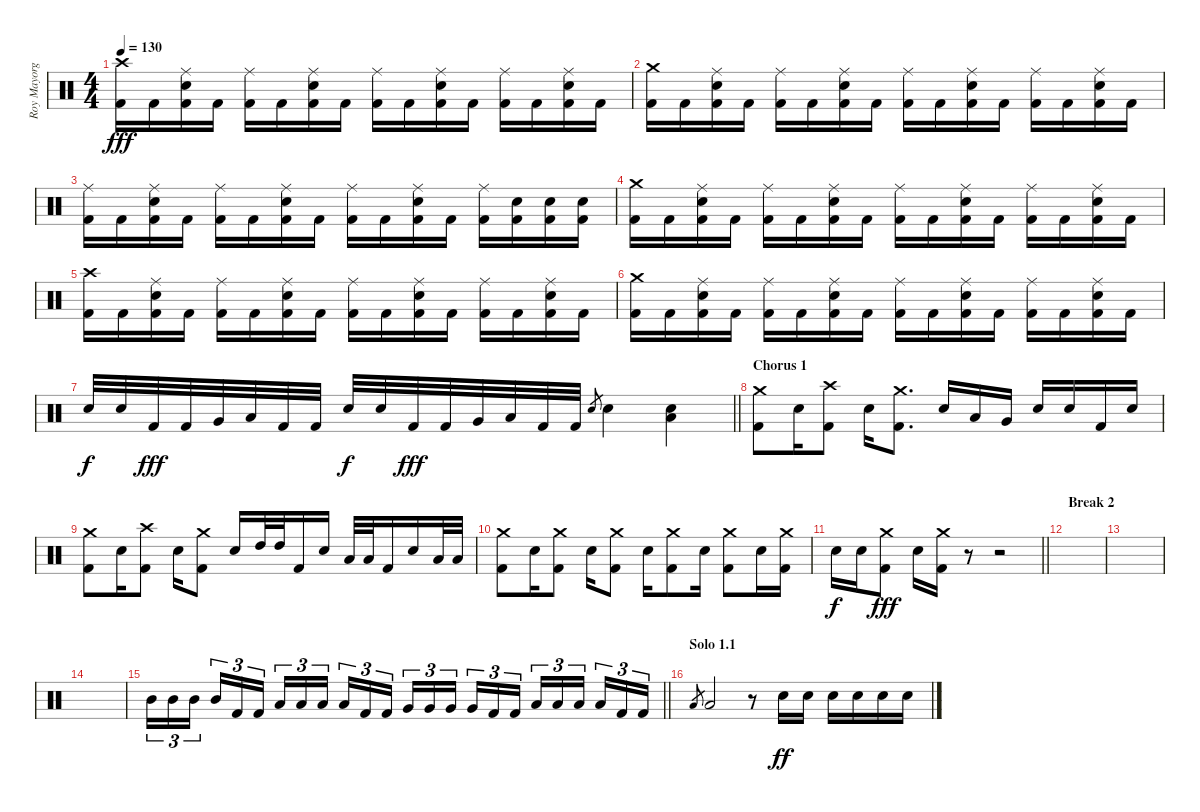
\track ("Roy Mayorga" "Roy Mayorg") {instrument percussion}
\staff {score}
\articulation defaults
\ts (4 4)
\tempo 130
\clef neutral
\ks c
("Crash high (hit)" "Kick (hit) 2").16{dy fff} "Kick (hit) 2".16 ("Ride (middle)" "Electric Snare (hit)" "Kick (hit) 2").16 "Kick (hit) 2".16 ("Ride (middle)" "Kick (hit) 2").16 "Kick (hit) 2".16 ("Ride (middle)" "Electric Snare (hit)" "Kick (hit) 2").16 "Kick (hit) 2".16 ("Ride (middle)" "Kick (hit) 2").16 "Kick (hit) 2".16 ("Ride (middle)" "Electric Snare (hit)" "Kick (hit) 2").16 "Kick (hit) 2".16 ("Ride (middle)" "Kick (hit) 2").16 "Kick (hit) 2".16 ("Ride (middle)" "Electric Snare (hit)" "Kick (hit) 2").16 "Kick (hit) 2".16 |
("Crash medium (hit)" "Kick (hit) 2").16 "Kick (hit) 2".16 ("Ride (middle)" "Electric Snare (hit)" "Kick (hit) 2").16 "Kick (hit) 2".16 ("Ride (middle)" "Kick (hit) 2").16 "Kick (hit) 2".16 ("Ride (middle)" "Electric Snare (hit)" "Kick (hit) 2").16 "Kick (hit) 2".16 ("Ride (middle)" "Kick (hit) 2").16 "Kick (hit) 2".16 ("Ride (middle)" "Electric Snare (hit)" "Kick (hit) 2").16 "Kick (hit) 2".16 ("Ride (middle)" "Kick (hit) 2").16 "Kick (hit) 2".16 ("Ride (middle)" "Electric Snare (hit)" "Kick (hit) 2").16 "Kick (hit) 2".16 |
("Ride (middle)" "Kick (hit) 2").16 "Kick (hit) 2".16 ("Ride (middle)" "Electric Snare (hit)" "Kick (hit) 2").16 "Kick (hit) 2".16 ("Ride (middle)" "Kick (hit) 2").16 "Kick (hit) 2".16 ("Ride (middle)" "Electric Snare (hit)" "Kick (hit) 2").16 "Kick (hit) 2".16 ("Ride (middle)" "Kick (hit) 2").16 "Kick (hit) 2".16 ("Ride (middle)" "Electric Snare (hit)" "Kick (hit) 2").16 "Kick (hit) 2".16 ("Ride (middle)" "Kick (hit) 2").16 ("Electric Snare (hit)" "Kick (hit) 2").16 ("Electric Snare (hit)" "Kick (hit) 2").16 ("Electric Snare (hit)" "Kick (hit) 2").16 |
("Crash medium (hit)" "Kick (hit) 2").16 "Kick (hit) 2".16 ("Ride (middle)" "Electric Snare (hit)" "Kick (hit) 2").16 "Kick (hit) 2".16 ("Ride (middle)" "Kick (hit) 2").16 "Kick (hit) 2".16 ("Ride (middle)" "Electric Snare (hit)" "Kick (hit) 2").16 "Kick (hit) 2".16 ("Ride (middle)" "Kick (hit) 2").16 "Kick (hit) 2".16 ("Ride (middle)" "Electric Snare (hit)" "Kick (hit) 2").16 "Kick (hit) 2".16 ("Ride (middle)" "Kick (hit) 2").16 "Kick (hit) 2".16 ("Ride (middle)" "Electric Snare (hit)" "Kick (hit) 2").16 "Kick (hit) 2".16 |
("Crash high (hit)" "Kick (hit) 2").16 "Kick (hit) 2".16 ("Ride (middle)" "Electric Snare (hit)" "Kick (hit) 2").16 "Kick (hit) 2".16 ("Ride (middle)" "Kick (hit) 2").16 "Kick (hit) 2".16 ("Ride (middle)" "Electric Snare (hit)" "Kick (hit) 2").16 "Kick (hit) 2".16 ("Ride (middle)" "Kick (hit) 2").16 "Kick (hit) 2".16 ("Ride (middle)" "Electric Snare (hit)" "Kick (hit) 2").16 "Kick (hit) 2".16 ("Ride (middle)" "Kick (hit) 2").16 "Kick (hit) 2".16 ("Ride (middle)" "Electric Snare (hit)" "Kick (hit) 2").16 "Kick (hit) 2".16 |
("Crash medium (hit)" "Kick (hit) 2").16 "Kick (hit) 2".16 ("Ride (middle)" "Electric Snare (hit)" "Kick (hit) 2").16 "Kick (hit) 2".16 ("Ride (middle)" "Kick (hit) 2").16 "Kick (hit) 2".16 ("Ride (middle)" "Electric Snare (hit)" "Kick (hit) 2").16 "Kick (hit) 2".16 ("Ride (middle)" "Kick (hit) 2").16 "Kick (hit) 2".16 ("Ride (middle)" "Electric Snare (hit)" "Kick (hit) 2").16 "Kick (hit) 2".16 ("Ride (middle)" "Kick (hit) 2").16 "Kick (hit) 2".16 ("Ride (middle)" "Electric Snare (hit)" "Kick (hit) 2").16 "Kick (hit) 2".16 |
\barLineRight lightlight "Electric Snare (hit)".32{dy f} "Electric Snare (hit)".32 "Kick (hit) 2".32{dy fff} "Kick (hit) 2".32 "Very Low Tom (hit)".32 "Low Floor Tom (hit)".32 "Kick (hit) 2".32 "Kick (hit) 2".32 "Electric Snare (hit)".32{dy f} "Electric Snare (hit)".32 "Kick (hit) 2".32{dy fff} "Kick (hit) 2".32 "Very Low Tom (hit)".32 "Low Floor Tom (hit)".32 "Kick (hit) 2".32 "Kick (hit) 2".32 "Electric Snare (hit)".8{gr} "Electric Snare (hit)".4
("Electric Snare (hit)" "Low Floor Tom (hit)").4 |
\section ("" "Chorus 1")
("Crash medium (hit)" "Kick (hit) 2").8 "Electric Snare (hit)".16 ("Crash high (hit)" "Kick (hit) 2").8 "Electric Snare (hit)".16 ("Crash medium (hit)" "Kick (hit) 2").8{d} "Electric Snare (hit)".16 "Low Tom (hit)".16 "Very Low Tom (hit)".16 "Electric Snare (hit)".16 "Electric Snare (hit)".16 "Kick (hit) 2".16 "Electric Snare (hit)".16 |
("Crash medium (hit)" "Kick (hit) 2").8 "Electric Snare (hit)".16 ("Crash high (hit)" "Kick (hit) 2").8 "Electric Snare (hit)".16 ("Crash medium (hit)" "Kick (hit) 2").8 "Electric Snare (hit)".16 "High Tom (hit)".32 "High Tom (hit)".32 "Kick (hit) 2".16 "Electric Snare (hit)".16 "Low Tom (hit)".32 "Low Tom (hit)".32 "Kick (hit) 2".16 "Electric Snare (hit)".16 "Low Floor Tom (hit)".32 "Low Floor Tom (hit)".32 |
("Crash medium (hit)" "Kick (hit) 2").8 "Electric Snare (hit)".16 ("Crash medium (hit)" "Kick (hit) 2").8 "Electric Snare (hit)".16 ("Crash medium (hit)" "Kick (hit) 2").8 "Electric Snare (hit)".16 ("Crash medium (hit)" "Kick (hit) 2").8 "Electric Snare (hit)".16 ("Crash medium (hit)" "Kick (hit) 2").8 "Electric Snare (hit)".16 ("Crash medium (hit)" "Kick (hit) 2").16 |
\barLineRight lightlight "Electric Snare (hit)".16{dy f} "Electric Snare (hit)".16
("Crash medium (hit)" "Kick (hit) 2").8{dy fff} "Electric Snare (hit)".16 ("Crash medium (hit)" "Kick (hit) 2").16 r.8 r.2 |
\section ("" "Break 2")
|
|
|
\barLineRight lightlight "Mid Tom (hit)".16{tu (3 2)} "Mid Tom (hit)".16{tu (3 2)} "Mid Tom (hit)".16{tu (3 2) beam splitsecondary} "Mid Tom (hit)".16{tu (3 2)} "Kick (hit) 2".16{tu (3 2)} "Kick (hit) 2".16{tu (3 2)} "Low Tom (hit)".16{tu (3 2)} "Low Tom (hit)".16{tu (3 2)} "Low Tom (hit)".16{tu (3 2) beam splitsecondary} "Low Tom (hit)".16{tu (3 2)} "Kick (hit) 2".16{tu (3 2)} "Kick (hit) 2".16{tu (3 2)} "Very Low Tom (hit)".16{tu (3 2)} "Very Low Tom (hit)".16{tu (3 2)} "Very Low Tom (hit)".16{tu (3 2) beam splitsecondary} "Very Low Tom (hit)".16{tu (3 2)} "Kick (hit) 2".16{tu (3 2)} "Kick (hit) 2".16{tu (3 2)} "Low Floor Tom (hit)".16{tu (3 2)} "Low Floor Tom (hit)".16{tu (3 2)} "Low Floor Tom (hit)".16{tu (3 2) beam splitsecondary} "Low Floor Tom (hit)".16{tu (3 2)} "Kick (hit) 2".16{tu (3 2)} "Kick (hit) 2".16{tu (3 2)}
|
\section ("" "Solo 1.1")
"Low Floor Tom (hit)".8{gr} "Low Floor Tom (hit)".2 r.8 "Electric Snare (hit)".16{dy ff} "Electric Snare (hit)".16 "Electric Snare (hit)".16 "Electric Snare (hit)".16 "Electric Snare (hit)".16 "Electric Snare (hit)".16
